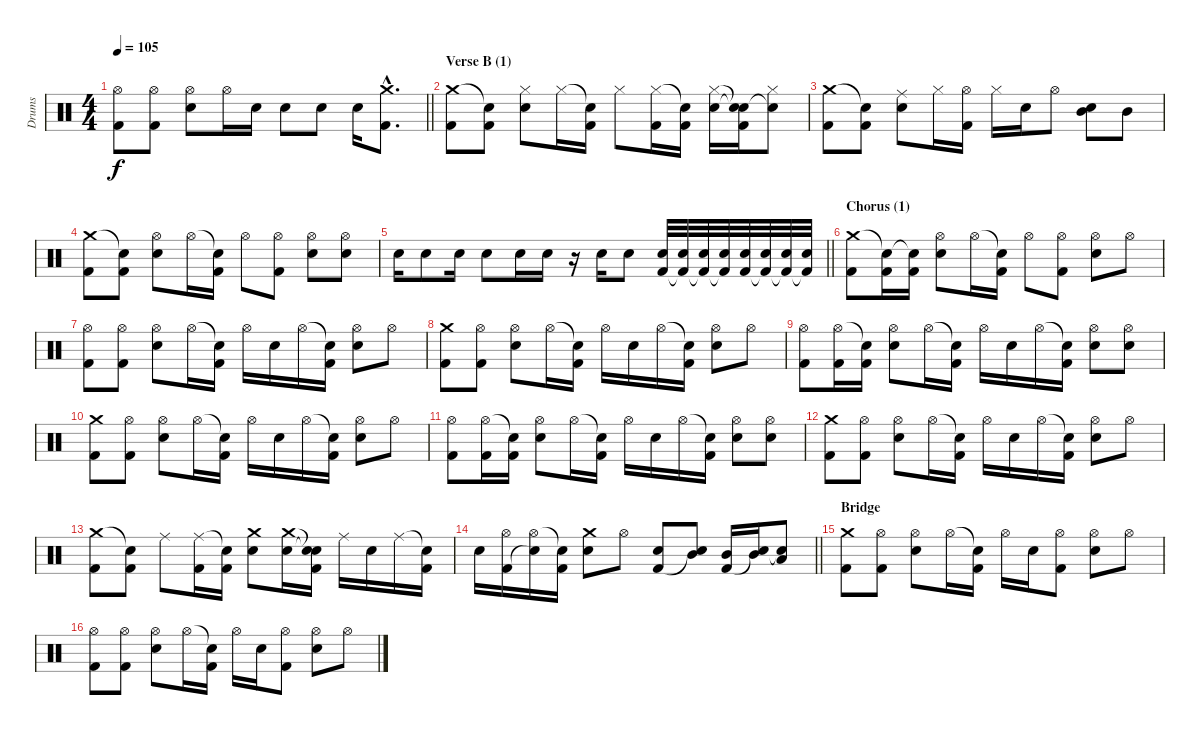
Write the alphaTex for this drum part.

\track ("Drums" "Drums") {instrument percussion}
\staff {score}
\articulation defaults
\ts (4 4)
\tempo 105
\clef neutral
\barLineRight lightlight
\ks aminor
("Hi-Hat (open)" "Kick (hit) 2").8{dy f} ("Hi-Hat (open)" "Kick (hit) 2").8 ("Hi-Hat (open)" "Electric Snare (hit)").8 "Hi-Hat (open)".16 "Electric Snare (hit)".16 "Electric Snare (hit)".8 "Electric Snare (hit)".8 "Electric Snare (hit)".16 ("Crash medium (hit)"{hac} "Kick (hit) 2"{hac}).8{d} |
\section ("" "Verse B (1)")
("Crash medium (hit)" "Kick (hit) 2").8 ("Snare (hit)"{t} "Kick (hit) 2").8 ("Hi-Hat (closed)" "Electric Snare (hit)").8 "Hi-Hat (closed)".16 ("Snare (hit)"{t} "Kick (hit) 2").16 "Hi-Hat (closed)".8 ("Hi-Hat (closed)" "Kick (hit) 2").16 ("Snare (hit)"{t} "Kick (hit) 2").16 ("Hi-Hat (closed)" "Electric Snare (hit)").16 ("Snare (hit)"{t} "Snare (hit)"{t} "Kick (hit) 2").16 ("Hi-Hat (closed)" "Snare (hit)"{t}).8 |
("Crash medium (hit)" "Kick (hit) 2").8 ("Snare (hit)"{t} "Kick (hit) 2").8 ("Ride (middle)" "Electric Snare (hit)").8 "Hi-Hat (closed)".16 ("Hi-Hat (open)" "Kick (hit) 2").16 "Hi-Hat (closed)".16 "Electric Snare (hit)".16 "Hi-Hat (open)".8 ("Electric Snare (hit)" "Mid Tom (hit)").8 "Mid Tom (hit)".8 |
("Crash medium (hit)" "Kick (hit) 2").8 ("Snare (hit)"{t} "Kick (hit) 2").8 ("Hi-Hat (open)" "Electric Snare (hit)").8 "Hi-Hat (open)".16 ("Snare (hit)"{t} "Kick (hit) 2").16 "Hi-Hat (open)".8 ("Hi-Hat (open)" "Kick (hit) 2").8 ("Hi-Hat (open)" "Electric Snare (hit)").8 ("Hi-Hat (open)" "Electric Snare (hit)").8 |
\barLineRight lightlight "Electric Snare (hit)".16 "Electric Snare (hit)".8 "Electric Snare (hit)".16 "Electric Snare (hit)".8 "Electric Snare (hit)".16 "Electric Snare (hit)".16
r.16 "Electric Snare (hit)".16 "Electric Snare (hit)".8 ("Electric Snare (hit)" "Kick (hit) 2").32 ("Electric Snare (hit)" "Kick (hit) 2"{t}).32 ("Electric Snare (hit)" "Kick (hit) 2"{t}).32 ("Electric Snare (hit)" "Kick (hit) 2"{t}).32 ("Electric Snare (hit)" "Kick (hit) 2").32 ("Electric Snare (hit)" "Kick (hit) 2"{t}).32 ("Electric Snare (hit)" "Kick (hit) 2"{t}).32 ("Electric Snare (hit)" "Kick (hit) 2"{t}).32 |
\section ("" "Chorus (1)")
("Crash medium (hit)" "Kick (hit) 2").8 ("Snare (hit)"{t} "Kick (hit) 2").16 ("Snare (hit)"{t} "Kick (hit) 2").16 ("Hi-Hat (open)" "Electric Snare (hit)").8 "Hi-Hat (open)".16 ("Snare (hit)"{t} "Kick (hit) 2").16 "Hi-Hat (open)".8 ("Hi-Hat (open)" "Kick (hit) 2").8 ("Hi-Hat (open)" "Electric Snare (hit)").8 "Hi-Hat (open)".8 |
("Hi-Hat (open)" "Kick (hit) 2").8 ("Hi-Hat (open)" "Kick (hit) 2").8 ("Hi-Hat (open)" "Electric Snare (hit)").8 "Hi-Hat (open)".16 ("Snare (hit)"{t} "Kick (hit) 2").16 "Hi-Hat (open)".16 "Electric Snare (hit)".16 "Hi-Hat (open)".16 ("Snare (hit)"{t} "Kick (hit) 2").16 ("Hi-Hat (open)" "Electric Snare (hit)").8 "Hi-Hat (open)".8 |
("Crash medium (hit)" "Kick (hit) 2").8 ("Hi-Hat (open)" "Kick (hit) 2").8 ("Hi-Hat (open)" "Electric Snare (hit)").8 "Hi-Hat (open)".16 ("Snare (hit)"{t} "Kick (hit) 2").16 "Hi-Hat (open)".16 "Electric Snare (hit)".16 "Hi-Hat (open)".16 ("Snare (hit)"{t} "Kick (hit) 2").16 ("Hi-Hat (open)" "Electric Snare (hit)").8 "Hi-Hat (open)".8 |
("Hi-Hat (open)" "Kick (hit) 2").8 ("Hi-Hat (open)" "Kick (hit) 2").16 ("Snare (hit)"{t} "Kick (hit) 2").16 ("Hi-Hat (open)" "Electric Snare (hit)").8 "Hi-Hat (open)".16 ("Snare (hit)"{t} "Kick (hit) 2").16 "Hi-Hat (open)".16 "Electric Snare (hit)".16 "Hi-Hat (open)".16 ("Snare (hit)"{t} "Kick (hit) 2").16 ("Hi-Hat (open)" "Electric Snare (hit)").8 ("Hi-Hat (open)" "Electric Snare (hit)").8 |
("Crash medium (hit)" "Kick (hit) 2").8 ("Hi-Hat (open)" "Kick (hit) 2").8 ("Hi-Hat (open)" "Electric Snare (hit)").8 "Hi-Hat (open)".16 ("Snare (hit)"{t} "Kick (hit) 2").16 "Hi-Hat (open)".16 "Electric Snare (hit)".16 "Hi-Hat (open)".16 ("Snare (hit)"{t} "Kick (hit) 2").16 ("Hi-Hat (open)" "Electric Snare (hit)").8 "Hi-Hat (open)".8 |
("Hi-Hat (open)" "Kick (hit) 2").8 ("Hi-Hat (open)" "Kick (hit) 2").16 ("Snare (hit)"{t} "Kick (hit) 2").16 ("Hi-Hat (open)" "Electric Snare (hit)").8 "Hi-Hat (open)".16 ("Snare (hit)"{t} "Kick (hit) 2").16 "Hi-Hat (open)".16 "Electric Snare (hit)".16 "Hi-Hat (open)".16 ("Snare (hit)"{t} "Kick (hit) 2").16 ("Hi-Hat (open)" "Electric Snare (hit)").8 ("Hi-Hat (open)" "Electric Snare (hit)").8 |
("Crash medium (hit)" "Kick (hit) 2").8 ("Hi-Hat (open)" "Kick (hit) 2").8 ("Hi-Hat (open)" "Electric Snare (hit)").8 "Hi-Hat (open)".16 ("Snare (hit)"{t} "Kick (hit) 2").16 "Hi-Hat (open)".16 "Electric Snare (hit)".16 "Hi-Hat (open)".16 ("Snare (hit)"{t} "Kick (hit) 2").16 ("Hi-Hat (open)" "Electric Snare (hit)").8 "Hi-Hat (open)".8 |
("Crash medium (hit)" "Kick (hit) 2").8 ("Snare (hit)"{t} "Kick (hit) 2").8 "Ride (middle)".8 ("Ride (middle)" "Kick (hit) 2").16 ("Snare (hit)"{t} "Kick (hit) 2").16 ("Crash medium (hit)" "Electric Snare (hit)").8 ("Crash medium (hit)" "Electric Snare (hit)").16 ("Snare (hit)"{t} "Snare (hit)"{t} "Kick (hit) 2").16 "Ride (middle)".16 "Electric Snare (hit)".16 "Ride (middle)".16 ("Snare (hit)"{t} "Kick (hit) 2").16 |
\barLineRight lightlight "Electric Snare (hit)".16
("Hi-Hat (open)" "Kick (hit) 2").16 ("Hi-Hat (open)" "Snare (hit)"{t}).16 ("Snare (hit)"{t} "Kick (hit) 2").16 ("Crash medium (hit)" "Electric Snare (hit)").8 "Hi-Hat (open)".8 ("Electric Snare (hit)" "Kick (hit) 2").8 ("Mid Tom (hit)" "Snare (hit)"{t}).8 ("Mid Tom (hit)" "Kick (hit) 2").16 ("Mid Tom (hit)" "Snare (hit)"{t}).16 ("Low Floor Tom (hit)" "Snare (hit)"{t}).8 |
\section ("" "Bridge")
("Crash medium (hit)" "Kick (hit) 2").8 ("Hi-Hat (open)" "Kick (hit) 2").8 ("Hi-Hat (open)" "Electric Snare (hit)").8 "Hi-Hat (open)".16 ("Snare (hit)"{t} "Kick (hit) 2").16 "Hi-Hat (open)".16 "Electric Snare (hit)".16 ("Hi-Hat (open)" "Kick (hit) 2").8 ("Hi-Hat (open)" "Electric Snare (hit)").8 "Hi-Hat (open)".8 |
("Hi-Hat (open)" "Kick (hit) 2").8 ("Hi-Hat (open)" "Kick (hit) 2").8 ("Hi-Hat (open)" "Electric Snare (hit)").8 "Hi-Hat (open)".16 ("Snare (hit)"{t} "Kick (hit) 2").16 "Hi-Hat (open)".16 "Electric Snare (hit)".16 ("Hi-Hat (open)" "Kick (hit) 2").8 ("Hi-Hat (open)" "Electric Snare (hit)").8 "Hi-Hat (open)".8
